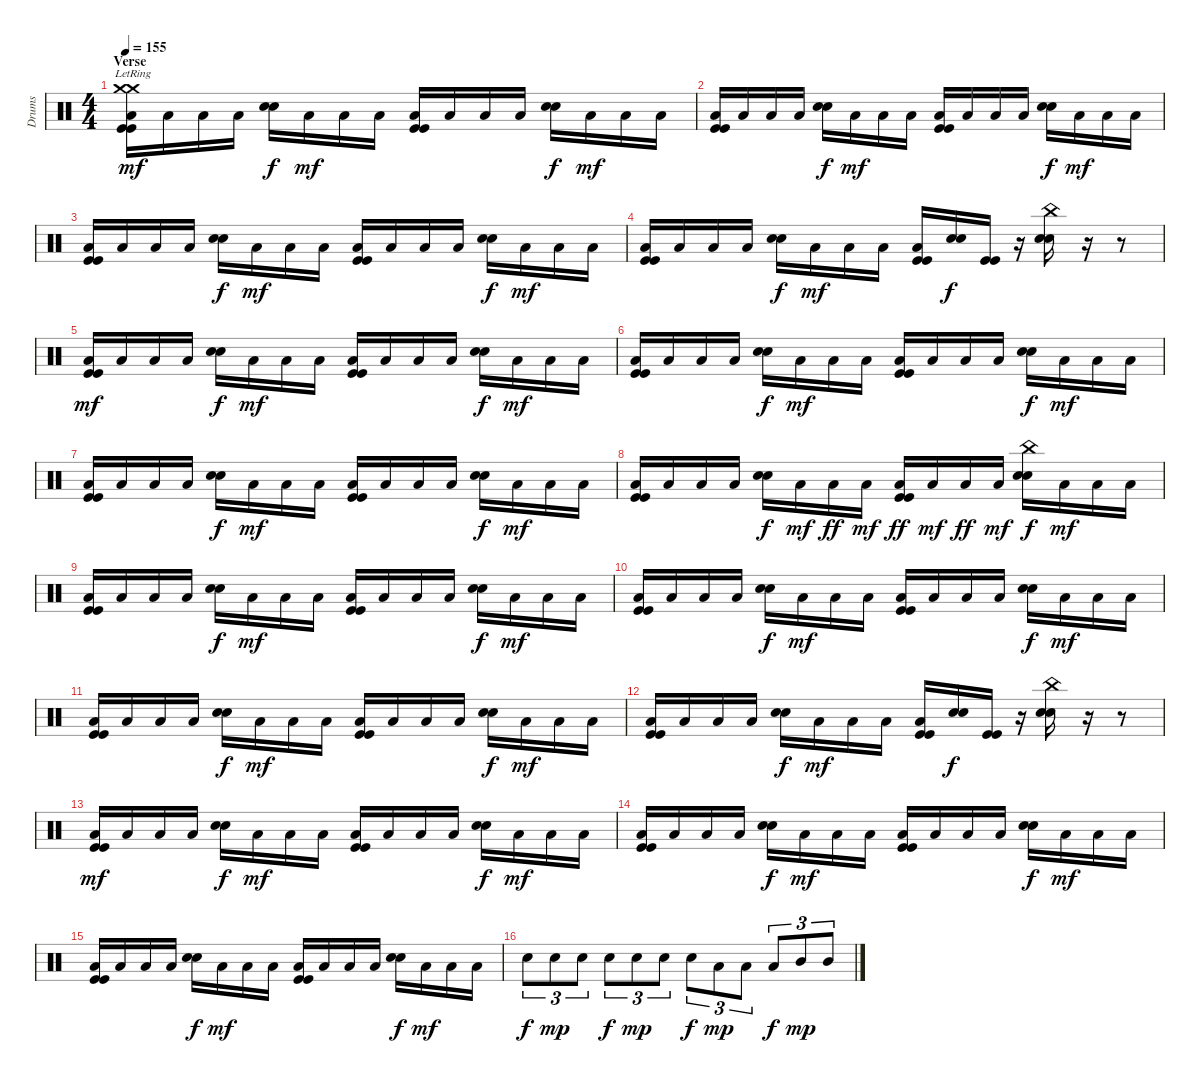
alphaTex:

\track ("Drums" "Drums") {instrument percussion}
\staff {score}
\articulation defaults
\ts (4 4)
\section ("" "Verse")
\tempo 155
\clef neutral
\ks c
("Crash medium (hit)"{lr} "Crash medium (hit)"{lr} "Low Tom (hit)" "Kick (hit)" "Kick (hit)").16{dy mf} "Low Tom (hit)".16 "Low Tom (hit)".16 "Low Tom (hit)".16 ("Snare (hit) 2" "Snare (hit) 2").16{dy f} "Low Tom (hit)".16{dy mf} "Low Tom (hit)".16 "Low Tom (hit)".16 ("Low Tom (hit)" "Kick (hit)" "Kick (hit)").16 "Low Tom (hit)".16 "Low Tom (hit)".16 "Low Tom (hit)".16 ("Snare (hit) 2" "Snare (hit) 2").16{dy f} "Low Tom (hit)".16{dy mf} "Low Tom (hit)".16 "Low Tom (hit)".16 |
("Low Tom (hit)" "Kick (hit)" "Kick (hit)").16 "Low Tom (hit)".16 "Low Tom (hit)".16 "Low Tom (hit)".16 ("Snare (hit) 2" "Snare (hit) 2").16{dy f} "Low Tom (hit)".16{dy mf} "Low Tom (hit)".16 "Low Tom (hit)".16 ("Low Tom (hit)" "Kick (hit)" "Kick (hit)").16 "Low Tom (hit)".16 "Low Tom (hit)".16 "Low Tom (hit)".16 ("Snare (hit) 2" "Snare (hit) 2").16{dy f} "Low Tom (hit)".16{dy mf} "Low Tom (hit)".16 "Low Tom (hit)".16 |
("Low Tom (hit)" "Kick (hit)" "Kick (hit)").16 "Low Tom (hit)".16 "Low Tom (hit)".16 "Low Tom (hit)".16 ("Snare (hit) 2" "Snare (hit) 2").16{dy f} "Low Tom (hit)".16{dy mf} "Low Tom (hit)".16 "Low Tom (hit)".16 ("Low Tom (hit)" "Kick (hit)" "Kick (hit)").16 "Low Tom (hit)".16 "Low Tom (hit)".16 "Low Tom (hit)".16 ("Snare (hit) 2" "Snare (hit) 2").16{dy f} "Low Tom (hit)".16{dy mf} "Low Tom (hit)".16 "Low Tom (hit)".16 |
("Low Tom (hit)" "Kick (hit)" "Kick (hit)").16 "Low Tom (hit)".16 "Low Tom (hit)".16 "Low Tom (hit)".16 ("Snare (hit) 2" "Snare (hit) 2").16{dy f} "Low Tom (hit)".16{dy mf} "Low Tom (hit)".16 "Low Tom (hit)".16 ("Low Tom (hit)" "Kick (hit)" "Kick (hit)").16 ("Snare (hit) 2" "Snare (hit) 2").16{dy f} ("Kick (hit)" "Kick (hit)").16 r.16 ("China (hit)" "Snare (hit) 2" "Snare (hit) 2").16 r.16 r.8 |
("Low Tom (hit)" "Kick (hit)" "Kick (hit)").16{dy mf} "Low Tom (hit)".16 "Low Tom (hit)".16 "Low Tom (hit)".16 ("Snare (hit) 2" "Snare (hit) 2").16{dy f} "Low Tom (hit)".16{dy mf} "Low Tom (hit)".16 "Low Tom (hit)".16 ("Low Tom (hit)" "Kick (hit)" "Kick (hit)").16 "Low Tom (hit)".16 "Low Tom (hit)".16 "Low Tom (hit)".16 ("Snare (hit) 2" "Snare (hit) 2").16{dy f} "Low Tom (hit)".16{dy mf} "Low Tom (hit)".16 "Low Tom (hit)".16 |
("Low Tom (hit)" "Kick (hit)" "Kick (hit)").16 "Low Tom (hit)".16 "Low Tom (hit)".16 "Low Tom (hit)".16 ("Snare (hit) 2" "Snare (hit) 2").16{dy f} "Low Tom (hit)".16{dy mf} "Low Tom (hit)".16 "Low Tom (hit)".16 ("Low Tom (hit)" "Kick (hit)" "Kick (hit)").16 "Low Tom (hit)".16 "Low Tom (hit)".16 "Low Tom (hit)".16 ("Snare (hit) 2" "Snare (hit) 2").16{dy f} "Low Tom (hit)".16{dy mf} "Low Tom (hit)".16 "Low Tom (hit)".16 |
("Low Tom (hit)" "Kick (hit)" "Kick (hit)").16 "Low Tom (hit)".16 "Low Tom (hit)".16 "Low Tom (hit)".16 ("Snare (hit) 2" "Snare (hit) 2").16{dy f} "Low Tom (hit)".16{dy mf} "Low Tom (hit)".16 "Low Tom (hit)".16 ("Low Tom (hit)" "Kick (hit)" "Kick (hit)").16 "Low Tom (hit)".16 "Low Tom (hit)".16 "Low Tom (hit)".16 ("Snare (hit) 2" "Snare (hit) 2").16{dy f} "Low Tom (hit)".16{dy mf} "Low Tom (hit)".16 "Low Tom (hit)".16 |
("Low Tom (hit)" "Kick (hit)" "Kick (hit)").16 "Low Tom (hit)".16 "Low Tom (hit)".16 "Low Tom (hit)".16 ("Snare (hit) 2" "Snare (hit) 2").16{dy f} "Low Tom (hit)".16{dy mf} "Low Tom (hit)".16{dy ff} "Low Tom (hit)".16{dy mf} ("Low Tom (hit)" "Kick (hit)" "Kick (hit)").16{dy ff} "Low Tom (hit)".16{dy mf} "Low Tom (hit)".16{dy ff} "Low Tom (hit)".16{dy mf} ("China (hit)" "Snare (hit) 2" "Snare (hit) 2").16{dy f} "Low Tom (hit)".16{dy mf} "Low Tom (hit)".16 "Low Tom (hit)".16 |
("Low Tom (hit)" "Kick (hit)" "Kick (hit)").16 "Low Tom (hit)".16 "Low Tom (hit)".16 "Low Tom (hit)".16 ("Snare (hit) 2" "Snare (hit) 2").16{dy f} "Low Tom (hit)".16{dy mf} "Low Tom (hit)".16 "Low Tom (hit)".16 ("Low Tom (hit)" "Kick (hit)" "Kick (hit)").16 "Low Tom (hit)".16 "Low Tom (hit)".16 "Low Tom (hit)".16 ("Snare (hit) 2" "Snare (hit) 2").16{dy f} "Low Tom (hit)".16{dy mf} "Low Tom (hit)".16 "Low Tom (hit)".16 |
("Low Tom (hit)" "Kick (hit)" "Kick (hit)").16 "Low Tom (hit)".16 "Low Tom (hit)".16 "Low Tom (hit)".16 ("Snare (hit) 2" "Snare (hit) 2").16{dy f} "Low Tom (hit)".16{dy mf} "Low Tom (hit)".16 "Low Tom (hit)".16 ("Low Tom (hit)" "Kick (hit)" "Kick (hit)").16 "Low Tom (hit)".16 "Low Tom (hit)".16 "Low Tom (hit)".16 ("Snare (hit) 2" "Snare (hit) 2").16{dy f} "Low Tom (hit)".16{dy mf} "Low Tom (hit)".16 "Low Tom (hit)".16 |
("Low Tom (hit)" "Kick (hit)" "Kick (hit)").16 "Low Tom (hit)".16 "Low Tom (hit)".16 "Low Tom (hit)".16 ("Snare (hit) 2" "Snare (hit) 2").16{dy f} "Low Tom (hit)".16{dy mf} "Low Tom (hit)".16 "Low Tom (hit)".16 ("Low Tom (hit)" "Kick (hit)" "Kick (hit)").16 "Low Tom (hit)".16 "Low Tom (hit)".16 "Low Tom (hit)".16 ("Snare (hit) 2" "Snare (hit) 2").16{dy f} "Low Tom (hit)".16{dy mf} "Low Tom (hit)".16 "Low Tom (hit)".16 |
("Low Tom (hit)" "Kick (hit)" "Kick (hit)").16 "Low Tom (hit)".16 "Low Tom (hit)".16 "Low Tom (hit)".16 ("Snare (hit) 2" "Snare (hit) 2").16{dy f} "Low Tom (hit)".16{dy mf} "Low Tom (hit)".16 "Low Tom (hit)".16 ("Low Tom (hit)" "Kick (hit)" "Kick (hit)").16 ("Snare (hit) 2" "Snare (hit) 2").16{dy f} ("Kick (hit)" "Kick (hit)").16 r.16 ("China (hit)" "Snare (hit) 2" "Snare (hit) 2").16 r.16 r.8 |
("Low Tom (hit)" "Kick (hit)" "Kick (hit)").16{dy mf} "Low Tom (hit)".16 "Low Tom (hit)".16 "Low Tom (hit)".16 ("Snare (hit) 2" "Snare (hit) 2").16{dy f} "Low Tom (hit)".16{dy mf} "Low Tom (hit)".16 "Low Tom (hit)".16 ("Low Tom (hit)" "Kick (hit)" "Kick (hit)").16 "Low Tom (hit)".16 "Low Tom (hit)".16 "Low Tom (hit)".16 ("Snare (hit) 2" "Snare (hit) 2").16{dy f} "Low Tom (hit)".16{dy mf} "Low Tom (hit)".16 "Low Tom (hit)".16 |
("Low Tom (hit)" "Kick (hit)" "Kick (hit)").16 "Low Tom (hit)".16 "Low Tom (hit)".16 "Low Tom (hit)".16 ("Snare (hit) 2" "Snare (hit) 2").16{dy f} "Low Tom (hit)".16{dy mf} "Low Tom (hit)".16 "Low Tom (hit)".16 ("Low Tom (hit)" "Kick (hit)" "Kick (hit)").16 "Low Tom (hit)".16 "Low Tom (hit)".16 "Low Tom (hit)".16 ("Snare (hit) 2" "Snare (hit) 2").16{dy f} "Low Tom (hit)".16{dy mf} "Low Tom (hit)".16 "Low Tom (hit)".16 |
("Low Tom (hit)" "Kick (hit)" "Kick (hit)").16 "Low Tom (hit)".16 "Low Tom (hit)".16 "Low Tom (hit)".16 ("Snare (hit) 2" "Snare (hit) 2").16{dy f} "Low Tom (hit)".16{dy mf} "Low Tom (hit)".16 "Low Tom (hit)".16 ("Low Tom (hit)" "Kick (hit)" "Kick (hit)").16 "Low Tom (hit)".16 "Low Tom (hit)".16 "Low Tom (hit)".16 ("Snare (hit) 2" "Snare (hit) 2").16{dy f} "Low Tom (hit)".16{dy mf} "Low Tom (hit)".16 "Low Tom (hit)".16 |
"Snare (hit) 2".8{tu (3 2) dy f} "Snare (hit) 2".8{tu (3 2) dy mp} "Snare (hit) 2".8{tu (3 2)} "Snare (hit) 2".8{tu (3 2) dy f} "Snare (hit) 2".8{tu (3 2) dy mp} "Snare (hit) 2".8{tu (3 2)} "Snare (hit) 2".8{tu (3 2) dy f} "Low Tom (hit)".8{tu (3 2) dy mp} "Low Tom (hit)".8{tu (3 2)} "Low Tom (hit)".8{tu (3 2) dy f} "Mid Tom (hit)".8{tu (3 2) dy mp} "Mid Tom (hit)".8{tu (3 2)}
